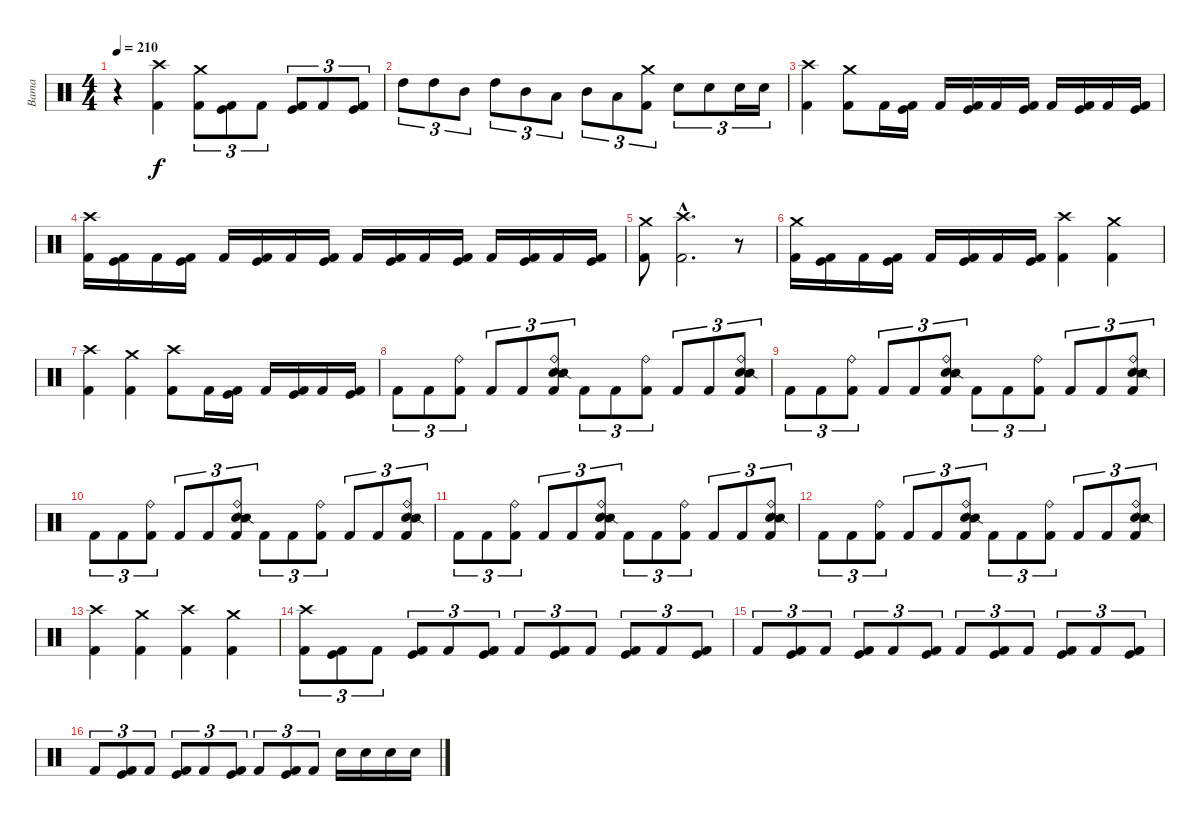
\track ("Bama" "Bama") {instrument percussion}
\staff {score}
\articulation defaults
\ts (4 4)
\tempo 210
\clef neutral
\ks c
r.4{dy f} ("Crash high (hit)" "Kick (hit) 2").4 ("Crash medium (hit)" "Kick (hit) 2").8{tu (3 2)} ("Kick (hit)" "Kick (hit) 2").8{tu (3 2)} "Kick (hit) 2".8{tu (3 2)} ("Kick (hit)" "Kick (hit) 2").8{tu (3 2)} "Kick (hit) 2".8{tu (3 2)} ("Kick (hit)" "Kick (hit) 2").8{tu (3 2)} |
"High Tom (hit)".8{tu (3 2)} "High Tom (hit)".8{tu (3 2)} "Mid Tom (hit)".8{tu (3 2)} "High Tom (hit)".8{tu (3 2)} "Mid Tom (hit)".8{tu (3 2)} "Low Tom (hit)".8{tu (3 2)} "Mid Tom (hit)".8{tu (3 2)} "Low Tom (hit)".8{tu (3 2)} ("Crash medium (hit)" "Kick (hit) 2").8{tu (3 2)} "Electric Snare (hit)".8{tu (3 2)} "Electric Snare (hit)".8{tu (3 2)} "Electric Snare (hit)".16{tu (3 2)} "Electric Snare (hit)".16{tu (3 2)} |
("Crash high (hit)" "Kick (hit) 2").4 ("Crash medium (hit)" "Kick (hit) 2").8 "Kick (hit) 2".16 ("Kick (hit)" "Kick (hit) 2").16 "Kick (hit) 2".16 ("Kick (hit)" "Kick (hit) 2").16 "Kick (hit) 2".16 ("Kick (hit)" "Kick (hit) 2").16 "Kick (hit) 2".16 ("Kick (hit)" "Kick (hit) 2").16 "Kick (hit) 2".16 ("Kick (hit)" "Kick (hit) 2").16 |
("Crash high (hit)" "Kick (hit) 2").16 ("Kick (hit)" "Kick (hit) 2").16 "Kick (hit) 2".16 ("Kick (hit)" "Kick (hit) 2").16 "Kick (hit) 2".16 ("Kick (hit)" "Kick (hit) 2").16 "Kick (hit) 2".16 ("Kick (hit)" "Kick (hit) 2").16 "Kick (hit) 2".16 ("Kick (hit)" "Kick (hit) 2").16 "Kick (hit) 2".16 ("Kick (hit)" "Kick (hit) 2").16 "Kick (hit) 2".16 ("Kick (hit)" "Kick (hit) 2").16 "Kick (hit) 2".16 ("Kick (hit)" "Kick (hit) 2").16 |
("Crash medium (hit)" "Kick (hit) 2").8 ("Crash high (hit)"{hac} "Kick (hit) 2"{hac}).2{d} r.8 |
("Crash medium (hit)" "Kick (hit) 2").16 ("Kick (hit)" "Kick (hit) 2").16 "Kick (hit) 2".16 ("Kick (hit)" "Kick (hit) 2").16 "Kick (hit) 2".16 ("Kick (hit)" "Kick (hit) 2").16 "Kick (hit) 2".16 ("Kick (hit)" "Kick (hit) 2").16 ("Crash high (hit)" "Kick (hit) 2").4 ("Crash medium (hit)" "Kick (hit) 2").4 |
("Crash high (hit)" "Kick (hit) 2").4 ("Crash medium (hit)" "Kick (hit) 2").4 ("Crash high (hit)" "Kick (hit) 2").8 "Kick (hit) 2".16 ("Kick (hit)" "Kick (hit) 2").16 "Kick (hit) 2".16 ("Kick (hit)" "Kick (hit) 2").16 "Kick (hit) 2".16 ("Kick (hit)" "Kick (hit) 2").16 |
"Kick (hit) 2".8{tu (3 2)} "Kick (hit) 2".8{tu (3 2)} ("Ride (bell)" "Kick (hit) 2").8{tu (3 2)} "Kick (hit) 2".8{tu (3 2)} "Kick (hit) 2".8{tu (3 2)} ("Ride (bell)" "Electric Snare (hit)" "Snare (side stick) 2" "Kick (hit) 2").8{tu (3 2)} "Kick (hit) 2".8{tu (3 2)} "Kick (hit) 2".8{tu (3 2)} ("Ride (bell)" "Kick (hit) 2").8{tu (3 2)} "Kick (hit) 2".8{tu (3 2)} "Kick (hit) 2".8{tu (3 2)} ("Ride (bell)" "Electric Snare (hit)" "Snare (side stick) 2" "Kick (hit) 2").8{tu (3 2)} |
"Kick (hit) 2".8{tu (3 2)} "Kick (hit) 2".8{tu (3 2)} ("Ride (bell)" "Kick (hit) 2").8{tu (3 2)} "Kick (hit) 2".8{tu (3 2)} "Kick (hit) 2".8{tu (3 2)} ("Ride (bell)" "Electric Snare (hit)" "Snare (side stick) 2" "Kick (hit) 2").8{tu (3 2)} "Kick (hit) 2".8{tu (3 2)} "Kick (hit) 2".8{tu (3 2)} ("Ride (bell)" "Kick (hit) 2").8{tu (3 2)} "Kick (hit) 2".8{tu (3 2)} "Kick (hit) 2".8{tu (3 2)} ("Ride (bell)" "Electric Snare (hit)" "Snare (side stick) 2" "Kick (hit) 2").8{tu (3 2)} |
"Kick (hit) 2".8{tu (3 2)} "Kick (hit) 2".8{tu (3 2)} ("Ride (bell)" "Kick (hit) 2").8{tu (3 2)} "Kick (hit) 2".8{tu (3 2)} "Kick (hit) 2".8{tu (3 2)} ("Ride (bell)" "Electric Snare (hit)" "Snare (side stick) 2" "Kick (hit) 2").8{tu (3 2)} "Kick (hit) 2".8{tu (3 2)} "Kick (hit) 2".8{tu (3 2)} ("Ride (bell)" "Kick (hit) 2").8{tu (3 2)} "Kick (hit) 2".8{tu (3 2)} "Kick (hit) 2".8{tu (3 2)} ("Ride (bell)" "Electric Snare (hit)" "Snare (side stick) 2" "Kick (hit) 2").8{tu (3 2)} |
"Kick (hit) 2".8{tu (3 2)} "Kick (hit) 2".8{tu (3 2)} ("Ride (bell)" "Kick (hit) 2").8{tu (3 2)} "Kick (hit) 2".8{tu (3 2)} "Kick (hit) 2".8{tu (3 2)} ("Ride (bell)" "Electric Snare (hit)" "Snare (side stick) 2" "Kick (hit) 2").8{tu (3 2)} "Kick (hit) 2".8{tu (3 2)} "Kick (hit) 2".8{tu (3 2)} ("Ride (bell)" "Kick (hit) 2").8{tu (3 2)} "Kick (hit) 2".8{tu (3 2)} "Kick (hit) 2".8{tu (3 2)} ("Ride (bell)" "Electric Snare (hit)" "Snare (side stick) 2" "Kick (hit) 2").8{tu (3 2)} |
"Kick (hit) 2".8{tu (3 2)} "Kick (hit) 2".8{tu (3 2)} ("Ride (bell)" "Kick (hit) 2").8{tu (3 2)} "Kick (hit) 2".8{tu (3 2)} "Kick (hit) 2".8{tu (3 2)} ("Ride (bell)" "Electric Snare (hit)" "Snare (side stick) 2" "Kick (hit) 2").8{tu (3 2)} "Kick (hit) 2".8{tu (3 2)} "Kick (hit) 2".8{tu (3 2)} ("Ride (bell)" "Kick (hit) 2").8{tu (3 2)} "Kick (hit) 2".8{tu (3 2)} "Kick (hit) 2".8{tu (3 2)} ("Ride (bell)" "Electric Snare (hit)" "Snare (side stick) 2" "Kick (hit) 2").8{tu (3 2)} |
("Crash high (hit)" "Kick (hit) 2").4 ("Crash medium (hit)" "Kick (hit) 2").4 ("Crash high (hit)" "Kick (hit) 2").4 ("Crash medium (hit)" "Kick (hit) 2").4 |
("Crash high (hit)" "Kick (hit) 2").8{tu (3 2)} ("Kick (hit)" "Kick (hit) 2").8{tu (3 2)} "Kick (hit) 2".8{tu (3 2)} ("Kick (hit)" "Kick (hit) 2").8{tu (3 2)} "Kick (hit) 2".8{tu (3 2)} ("Kick (hit)" "Kick (hit) 2").8{tu (3 2)} "Kick (hit) 2".8{tu (3 2)} ("Kick (hit)" "Kick (hit) 2").8{tu (3 2)} "Kick (hit) 2".8{tu (3 2)} ("Kick (hit)" "Kick (hit) 2").8{tu (3 2)} "Kick (hit) 2".8{tu (3 2)} ("Kick (hit)" "Kick (hit) 2").8{tu (3 2)} |
"Kick (hit) 2".8{tu (3 2)} ("Kick (hit)" "Kick (hit) 2").8{tu (3 2)} "Kick (hit) 2".8{tu (3 2)} ("Kick (hit)" "Kick (hit) 2").8{tu (3 2)} "Kick (hit) 2".8{tu (3 2)} ("Kick (hit)" "Kick (hit) 2").8{tu (3 2)} "Kick (hit) 2".8{tu (3 2)} ("Kick (hit)" "Kick (hit) 2").8{tu (3 2)} "Kick (hit) 2".8{tu (3 2)} ("Kick (hit)" "Kick (hit) 2").8{tu (3 2)} "Kick (hit) 2".8{tu (3 2)} ("Kick (hit)" "Kick (hit) 2").8{tu (3 2)} |
"Kick (hit) 2".8{tu (3 2)} ("Kick (hit)" "Kick (hit) 2").8{tu (3 2)} "Kick (hit) 2".8{tu (3 2)} ("Kick (hit)" "Kick (hit) 2").8{tu (3 2)} "Kick (hit) 2".8{tu (3 2)} ("Kick (hit)" "Kick (hit) 2").8{tu (3 2)} "Kick (hit) 2".8{tu (3 2)} ("Kick (hit)" "Kick (hit) 2").8{tu (3 2)} "Kick (hit) 2".8{tu (3 2)} "Electric Snare (hit)".16 "Electric Snare (hit)".16 "Electric Snare (hit)".16 "Electric Snare (hit)".16
